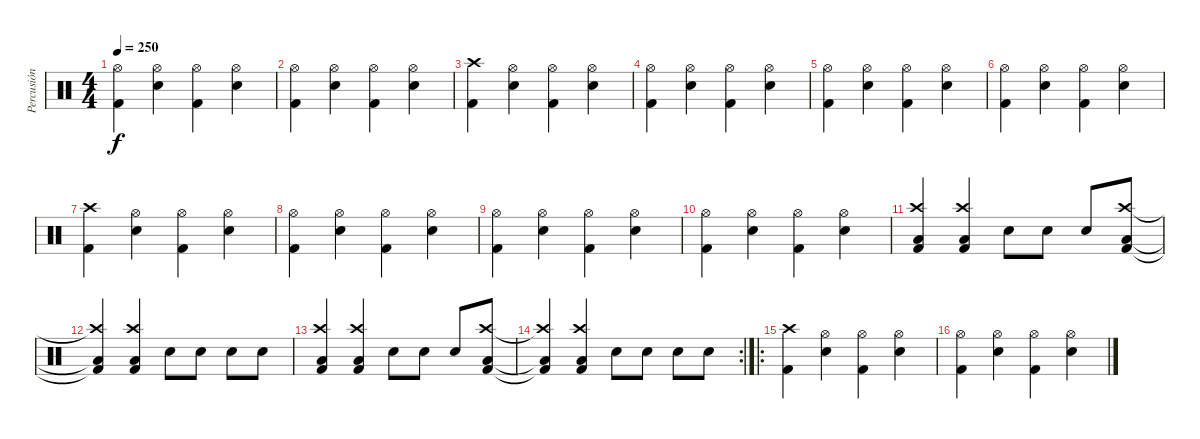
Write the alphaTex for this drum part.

\track ("Percusión" "Percusión") {instrument percussion}
\staff {score}
\articulation defaults
\ts (4 4)
\tempo 250
\clef neutral
\ks c
("Kick (hit) 2" "Hi-Hat (open)").4{dy f} ("Snare (hit) 2" "Hi-Hat (open)").4 ("Kick (hit) 2" "Hi-Hat (open)").4 ("Snare (hit) 2" "Hi-Hat (open)").4 |
("Kick (hit) 2" "Hi-Hat (open)").4 ("Snare (hit) 2" "Hi-Hat (open)").4 ("Kick (hit) 2" "Hi-Hat (open)").4 ("Snare (hit) 2" "Hi-Hat (open)").4 |
("Kick (hit) 2" "Crash high (hit)").4 ("Snare (hit) 2" "Hi-Hat (open)").4 ("Kick (hit) 2" "Hi-Hat (open)").4 ("Snare (hit) 2" "Hi-Hat (open)").4 |
("Kick (hit) 2" "Hi-Hat (open)").4 ("Snare (hit) 2" "Hi-Hat (open)").4 ("Kick (hit) 2" "Hi-Hat (open)").4 ("Snare (hit) 2" "Hi-Hat (open)").4 |
("Kick (hit) 2" "Hi-Hat (open)").4 ("Snare (hit) 2" "Hi-Hat (open)").4 ("Kick (hit) 2" "Hi-Hat (open)").4 ("Snare (hit) 2" "Hi-Hat (open)").4 |
("Kick (hit) 2" "Hi-Hat (open)").4 ("Snare (hit) 2" "Hi-Hat (open)").4 ("Kick (hit) 2" "Hi-Hat (open)").4 ("Snare (hit) 2" "Hi-Hat (open)").4 |
("Kick (hit) 2" "Crash high (hit)").4 ("Snare (hit) 2" "Hi-Hat (open)").4 ("Kick (hit) 2" "Hi-Hat (open)").4 ("Snare (hit) 2" "Hi-Hat (open)").4 |
("Kick (hit) 2" "Hi-Hat (open)").4 ("Snare (hit) 2" "Hi-Hat (open)").4 ("Kick (hit) 2" "Hi-Hat (open)").4 ("Snare (hit) 2" "Hi-Hat (open)").4 |
("Kick (hit) 2" "Hi-Hat (open)").4 ("Snare (hit) 2" "Hi-Hat (open)").4 ("Kick (hit) 2" "Hi-Hat (open)").4 ("Snare (hit) 2" "Hi-Hat (open)").4 |
("Kick (hit) 2" "Hi-Hat (open)").4 ("Snare (hit) 2" "Hi-Hat (open)").4 ("Kick (hit) 2" "Hi-Hat (open)").4 ("Snare (hit) 2" "Hi-Hat (open)").4 |
("Kick (hit) 2" "Low Tom (hit)" "Crash high (hit)").4 ("Kick (hit) 2" "Low Tom (hit)" "Crash high (hit)").4 "Snare (hit) 2".8 "Snare (hit) 2".8 "Snare (hit) 2".8 ("Kick (hit) 2" "Low Tom (hit)" "Crash high (hit)").8 |
("Kick (hit) 2"{t} "Low Tom (hit)"{t} "Crash high (hit)"{t}).4 ("Kick (hit) 2" "Low Tom (hit)" "Crash high (hit)").4 "Snare (hit) 2".8 "Snare (hit) 2".8 "Snare (hit) 2".8 "Snare (hit) 2".8 |
("Kick (hit) 2" "Low Tom (hit)" "Crash high (hit)").4 ("Kick (hit) 2" "Low Tom (hit)" "Crash high (hit)").4 "Snare (hit) 2".8 "Snare (hit) 2".8 "Snare (hit) 2".8 ("Kick (hit) 2" "Low Tom (hit)" "Crash high (hit)").8 |
\rc 2
("Kick (hit) 2"{t} "Low Tom (hit)"{t} "Crash high (hit)"{t}).4 ("Kick (hit) 2" "Low Tom (hit)" "Crash high (hit)").4 "Snare (hit) 2".8 "Snare (hit) 2".8 "Snare (hit) 2".8 "Snare (hit) 2".8 |
\ro
("Kick (hit) 2" "Crash high (hit)").4 ("Snare (hit) 2" "Hi-Hat (open)").4 ("Kick (hit) 2" "Hi-Hat (open)").4 ("Snare (hit) 2" "Hi-Hat (open)").4 |
("Kick (hit) 2" "Hi-Hat (open)").4 ("Snare (hit) 2" "Hi-Hat (open)").4 ("Kick (hit) 2" "Hi-Hat (open)").4 ("Snare (hit) 2" "Hi-Hat (open)").4
